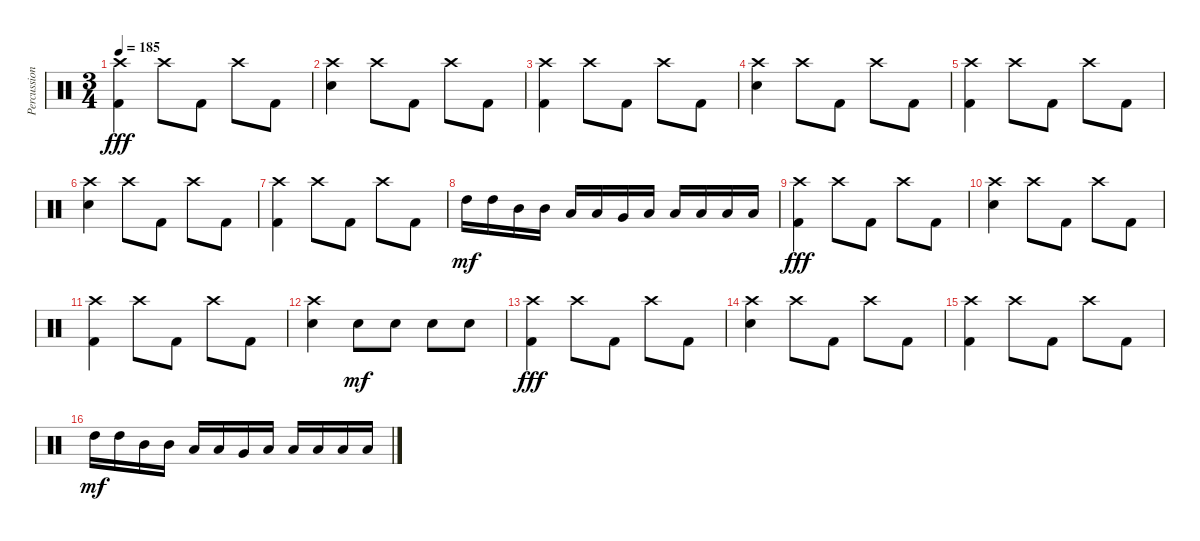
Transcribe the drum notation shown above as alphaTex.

\track ("Percussion" "Percussion") {instrument percussion}
\staff {score}
\articulation defaults
\ts (3 4)
\tempo 185
\clef neutral
\ks c
("Crash high (hit)" "Kick (hit) 2").4{dy fff} "Crash high (hit)".8 "Kick (hit) 2".8 "Crash high (hit)".8 "Kick (hit) 2".8 |
("Crash high (hit)" "Electric Snare (hit)").4 "Crash high (hit)".8 "Kick (hit) 2".8 "Crash high (hit)".8 "Kick (hit) 2".8 |
("Crash high (hit)" "Kick (hit) 2").4 "Crash high (hit)".8 "Kick (hit) 2".8 "Crash high (hit)".8 "Kick (hit) 2".8 |
("Crash high (hit)" "Electric Snare (hit)").4 "Crash high (hit)".8 "Kick (hit) 2".8 "Crash high (hit)".8 "Kick (hit) 2".8 |
("Crash high (hit)" "Kick (hit) 2").4 "Crash high (hit)".8 "Kick (hit) 2".8 "Crash high (hit)".8 "Kick (hit) 2".8 |
("Crash high (hit)" "Electric Snare (hit)").4 "Crash high (hit)".8 "Kick (hit) 2".8 "Crash high (hit)".8 "Kick (hit) 2".8 |
("Crash high (hit)" "Kick (hit) 2").4 "Crash high (hit)".8 "Kick (hit) 2".8 "Crash high (hit)".8 "Kick (hit) 2".8 |
"High Tom (hit)".16{dy mf} "High Tom (hit)".16 "Mid Tom (hit)".16 "Mid Tom (hit)".16 "Low Tom (hit)".16 "Low Tom (hit)".16 "Very Low Tom (hit)".16 "Low Floor Tom (hit)".16 "Low Floor Tom (hit)".16 "Low Floor Tom (hit)".16 "Low Floor Tom (hit)".16 "Low Floor Tom (hit)".16 |
("Crash high (hit)" "Kick (hit) 2").4{dy fff} "Crash high (hit)".8 "Kick (hit) 2".8 "Crash high (hit)".8 "Kick (hit) 2".8 |
("Crash high (hit)" "Electric Snare (hit)").4 "Crash high (hit)".8 "Kick (hit) 2".8 "Crash high (hit)".8 "Kick (hit) 2".8 |
("Crash high (hit)" "Kick (hit) 2").4 "Crash high (hit)".8 "Kick (hit) 2".8 "Crash high (hit)".8 "Kick (hit) 2".8 |
("Crash high (hit)" "Electric Snare (hit)").4 "Electric Snare (hit)".8{dy mf} "Electric Snare (hit)".8 "Electric Snare (hit)".8 "Electric Snare (hit)".8 |
("Crash high (hit)" "Kick (hit) 2").4{dy fff} "Crash high (hit)".8 "Kick (hit) 2".8 "Crash high (hit)".8 "Kick (hit) 2".8 |
("Crash high (hit)" "Electric Snare (hit)").4 "Crash high (hit)".8 "Kick (hit) 2".8 "Crash high (hit)".8 "Kick (hit) 2".8 |
("Crash high (hit)" "Kick (hit) 2").4 "Crash high (hit)".8 "Kick (hit) 2".8 "Crash high (hit)".8 "Kick (hit) 2".8 |
"High Tom (hit)".16{dy mf} "High Tom (hit)".16 "Mid Tom (hit)".16 "Mid Tom (hit)".16 "Low Tom (hit)".16 "Low Tom (hit)".16 "Very Low Tom (hit)".16 "Low Floor Tom (hit)".16 "Low Floor Tom (hit)".16 "Low Floor Tom (hit)".16 "Low Floor Tom (hit)".16 "Low Floor Tom (hit)".16
